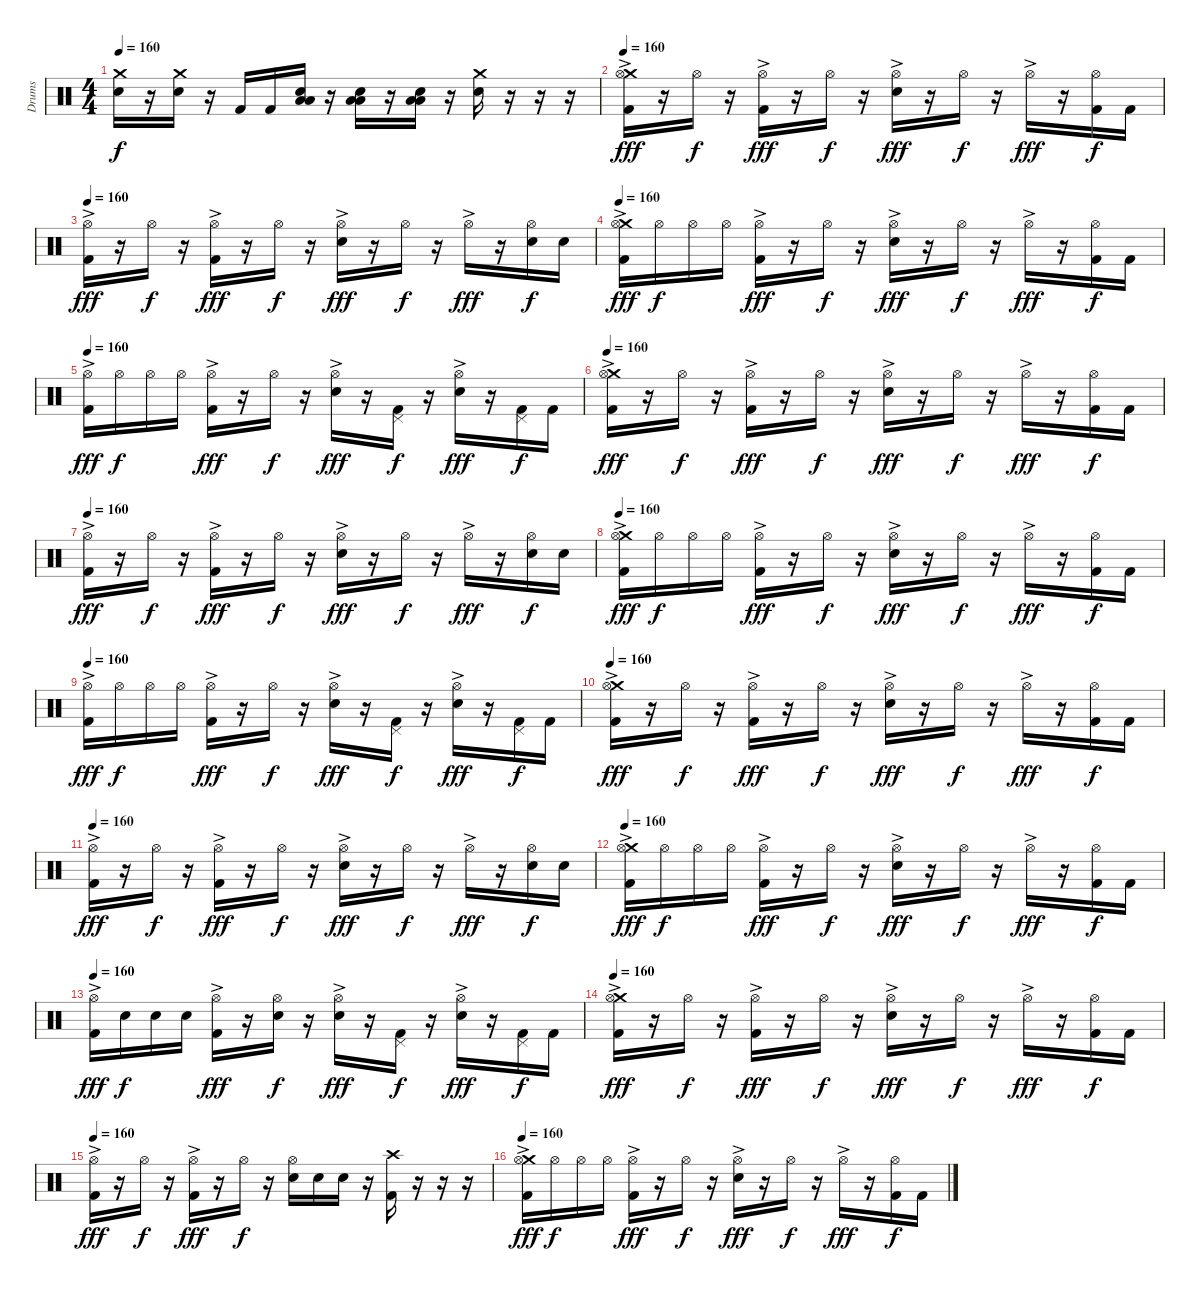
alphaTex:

\track ("Drums" "Drums") {instrument percussion}
\staff {score}
\articulation defaults
\ts (4 4)
\tempo 160
\clef neutral
\ks c
("Crash medium (hit)" "Electric Snare (hit)").16{dy f} r.16 ("Crash medium (hit)" "Electric Snare (hit)").16 r.16 "Kick (hit) 2".16 "Kick (hit) 2".16 ("Low Floor Tom (hit)" "Low Floor Tom (hit)" "Electric Snare (hit)").16 r.16 ("Low Floor Tom (hit)" "Low Floor Tom (hit)" "Electric Snare (hit)").16 r.16 ("Low Floor Tom (hit)" "Low Floor Tom (hit)" "Electric Snare (hit)").16 r.16 ("Crash medium (hit)" "Electric Snare (hit)").16 r.16 r.16 r.16 |
\tempo 160
("Crash medium (hit)" "Hi-Hat (open)"{ac} "Kick (hit) 2").16{dy fff} r.16 "Hi-Hat (open)".16{dy f} r.16 ("Hi-Hat (open)"{ac} "Kick (hit) 2").16{dy fff} r.16 "Hi-Hat (open)".16{dy f} r.16 ("Hi-Hat (open)"{ac} "Electric Snare (hit)").16{dy fff} r.16 "Hi-Hat (open)".16{dy f} r.16 "Hi-Hat (open)"{ac}.16{dy fff} r.16 ("Hi-Hat (open)" "Kick (hit) 2").16{dy f} "Kick (hit) 2".16 |
\tempo 160
("Hi-Hat (open)"{ac} "Kick (hit) 2").16{dy fff} r.16 "Hi-Hat (open)".16{dy f} r.16 ("Hi-Hat (open)"{ac} "Kick (hit) 2").16{dy fff} r.16 "Hi-Hat (open)".16{dy f} r.16 ("Hi-Hat (open)"{ac} "Electric Snare (hit)").16{dy fff} r.16 "Hi-Hat (open)".16{dy f} r.16 "Hi-Hat (open)"{ac}.16{dy fff} r.16 ("Hi-Hat (open)" "Electric Snare (hit)").16{dy f} "Electric Snare (hit)".16 |
\tempo 160
("Crash medium (hit)" "Hi-Hat (open)"{ac} "Kick (hit) 2").16{dy fff} "Hi-Hat (open)".16{dy f} "Hi-Hat (open)".16 "Hi-Hat (open)".16 ("Hi-Hat (open)"{ac} "Kick (hit) 2").16{dy fff} r.16 "Hi-Hat (open)".16{dy f} r.16 ("Hi-Hat (open)"{ac} "Electric Snare (hit)").16{dy fff} r.16 "Hi-Hat (open)".16{dy f} r.16 "Hi-Hat (open)"{ac}.16{dy fff} r.16 ("Hi-Hat (open)" "Kick (hit) 2").16{dy f} "Kick (hit) 2".16 |
\tempo 160
("Hi-Hat (open)"{ac} "Kick (hit) 2").16{dy fff} "Hi-Hat (open)".16{dy f} "Hi-Hat (open)".16 "Hi-Hat (open)".16 ("Hi-Hat (open)"{ac} "Kick (hit) 2").16{dy fff} r.16 "Hi-Hat (open)".16{dy f} r.16 ("Hi-Hat (open)"{ac} "Electric Snare (hit)").16{dy fff} r.16 ("Pedal Hi-Hat (hit)" "Kick (hit) 2").16{dy f} r.16 ("Hi-Hat (open)"{ac} "Electric Snare (hit)").16{dy fff} r.16 ("Pedal Hi-Hat (hit)" "Kick (hit) 2").16{dy f} "Kick (hit) 2".16 |
\tempo 160
("Crash medium (hit)" "Hi-Hat (open)"{ac} "Kick (hit) 2").16{dy fff} r.16 "Hi-Hat (open)".16{dy f} r.16 ("Hi-Hat (open)"{ac} "Kick (hit) 2").16{dy fff} r.16 "Hi-Hat (open)".16{dy f} r.16 ("Hi-Hat (open)"{ac} "Electric Snare (hit)").16{dy fff} r.16 "Hi-Hat (open)".16{dy f} r.16 "Hi-Hat (open)"{ac}.16{dy fff} r.16 ("Hi-Hat (open)" "Kick (hit) 2").16{dy f} "Kick (hit) 2".16 |
\tempo 160
("Hi-Hat (open)"{ac} "Kick (hit) 2").16{dy fff} r.16 "Hi-Hat (open)".16{dy f} r.16 ("Hi-Hat (open)"{ac} "Kick (hit) 2").16{dy fff} r.16 "Hi-Hat (open)".16{dy f} r.16 ("Hi-Hat (open)"{ac} "Electric Snare (hit)").16{dy fff} r.16 "Hi-Hat (open)".16{dy f} r.16 "Hi-Hat (open)"{ac}.16{dy fff} r.16 ("Hi-Hat (open)" "Electric Snare (hit)").16{dy f} "Electric Snare (hit)".16 |
\tempo 160
("Crash medium (hit)" "Hi-Hat (open)"{ac} "Kick (hit) 2").16{dy fff} "Hi-Hat (open)".16{dy f} "Hi-Hat (open)".16 "Hi-Hat (open)".16 ("Hi-Hat (open)"{ac} "Kick (hit) 2").16{dy fff} r.16 "Hi-Hat (open)".16{dy f} r.16 ("Hi-Hat (open)"{ac} "Electric Snare (hit)").16{dy fff} r.16 "Hi-Hat (open)".16{dy f} r.16 "Hi-Hat (open)"{ac}.16{dy fff} r.16 ("Hi-Hat (open)" "Kick (hit) 2").16{dy f} "Kick (hit) 2".16 |
\tempo 160
("Hi-Hat (open)"{ac} "Kick (hit) 2").16{dy fff} "Hi-Hat (open)".16{dy f} "Hi-Hat (open)".16 "Hi-Hat (open)".16 ("Hi-Hat (open)"{ac} "Kick (hit) 2").16{dy fff} r.16 "Hi-Hat (open)".16{dy f} r.16 ("Hi-Hat (open)"{ac} "Electric Snare (hit)").16{dy fff} r.16 ("Pedal Hi-Hat (hit)" "Kick (hit) 2").16{dy f} r.16 ("Hi-Hat (open)"{ac} "Electric Snare (hit)").16{dy fff} r.16 ("Pedal Hi-Hat (hit)" "Kick (hit) 2").16{dy f} "Kick (hit) 2".16 |
\tempo 160
("Crash medium (hit)" "Hi-Hat (open)"{ac} "Kick (hit) 2").16{dy fff} r.16 "Hi-Hat (open)".16{dy f} r.16 ("Hi-Hat (open)"{ac} "Kick (hit) 2").16{dy fff} r.16 "Hi-Hat (open)".16{dy f} r.16 ("Hi-Hat (open)"{ac} "Electric Snare (hit)").16{dy fff} r.16 "Hi-Hat (open)".16{dy f} r.16 "Hi-Hat (open)"{ac}.16{dy fff} r.16 ("Hi-Hat (open)" "Kick (hit) 2").16{dy f} "Kick (hit) 2".16 |
\tempo 160
("Hi-Hat (open)"{ac} "Kick (hit) 2").16{dy fff} r.16 "Hi-Hat (open)".16{dy f} r.16 ("Hi-Hat (open)"{ac} "Kick (hit) 2").16{dy fff} r.16 "Hi-Hat (open)".16{dy f} r.16 ("Hi-Hat (open)"{ac} "Electric Snare (hit)").16{dy fff} r.16 "Hi-Hat (open)".16{dy f} r.16 "Hi-Hat (open)"{ac}.16{dy fff} r.16 ("Hi-Hat (open)" "Electric Snare (hit)").16{dy f} "Electric Snare (hit)".16 |
\tempo 160
("Crash medium (hit)" "Hi-Hat (open)"{ac} "Kick (hit) 2").16{dy fff} "Hi-Hat (open)".16{dy f} "Hi-Hat (open)".16 "Hi-Hat (open)".16 ("Hi-Hat (open)"{ac} "Kick (hit) 2").16{dy fff} r.16 "Hi-Hat (open)".16{dy f} r.16 ("Hi-Hat (open)"{ac} "Electric Snare (hit)").16{dy fff} r.16 "Hi-Hat (open)".16{dy f} r.16 "Hi-Hat (open)"{ac}.16{dy fff} r.16 ("Hi-Hat (open)" "Kick (hit) 2").16{dy f} "Kick (hit) 2".16 |
\tempo 160
("Hi-Hat (open)"{ac} "Kick (hit) 2").16{dy fff} "Electric Snare (hit)".16{dy f} "Electric Snare (hit)".16 "Electric Snare (hit)".16 ("Hi-Hat (open)"{ac} "Kick (hit) 2").16{dy fff} r.16 ("Hi-Hat (open)" "Electric Snare (hit)").16{dy f} r.16 ("Hi-Hat (open)"{ac} "Electric Snare (hit)").16{dy fff} r.16 ("Pedal Hi-Hat (hit)" "Kick (hit) 2").16{dy f} r.16 ("Hi-Hat (open)"{ac} "Electric Snare (hit)").16{dy fff} r.16 ("Pedal Hi-Hat (hit)" "Kick (hit) 2").16{dy f} "Kick (hit) 2".16 |
\tempo 160
("Crash medium (hit)" "Hi-Hat (open)"{ac} "Kick (hit) 2").16{dy fff} r.16 "Hi-Hat (open)".16{dy f} r.16 ("Hi-Hat (open)"{ac} "Kick (hit) 2").16{dy fff} r.16 "Hi-Hat (open)".16{dy f} r.16 ("Hi-Hat (open)"{ac} "Electric Snare (hit)").16{dy fff} r.16 "Hi-Hat (open)".16{dy f} r.16 "Hi-Hat (open)"{ac}.16{dy fff} r.16 ("Hi-Hat (open)" "Kick (hit) 2").16{dy f} "Kick (hit) 2".16 |
\tempo 160
("Hi-Hat (open)"{ac} "Kick (hit) 2").16{dy fff} r.16 "Hi-Hat (open)".16{dy f} r.16 ("Hi-Hat (open)"{ac} "Kick (hit) 2").16{dy fff} r.16 "Hi-Hat (open)".16{dy f} r.16 ("Hi-Hat (open)" "Electric Snare (hit)").16 "Electric Snare (hit)".16 "Electric Snare (hit)".16 r.16 ("Crash high (hit)" "Kick (hit) 2").16 r.16 r.16 r.16 |
\tempo 160
("Crash medium (hit)" "Hi-Hat (open)"{ac} "Kick (hit) 2").16{dy fff} "Hi-Hat (open)".16{dy f} "Hi-Hat (open)".16 "Hi-Hat (open)".16 ("Hi-Hat (open)"{ac} "Kick (hit) 2").16{dy fff} r.16 "Hi-Hat (open)".16{dy f} r.16 ("Hi-Hat (open)"{ac} "Electric Snare (hit)").16{dy fff} r.16 "Hi-Hat (open)".16{dy f} r.16 "Hi-Hat (open)"{ac}.16{dy fff} r.16 ("Hi-Hat (open)" "Kick (hit) 2").16{dy f} "Kick (hit) 2".16
